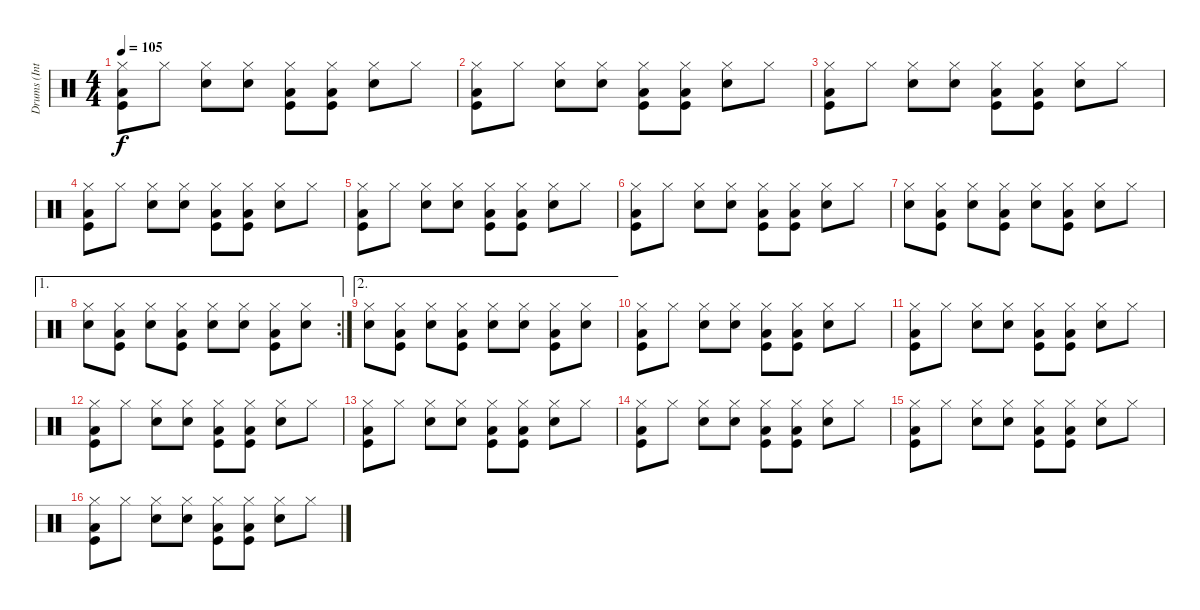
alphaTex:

\track ("Drums (Intro)" "Drums (Int") {instrument percussion}
\staff {score}
\articulation defaults
\ts (4 4)
\tempo 105
\clef neutral
\ks c
("Hi-Hat (closed)" "Low Floor Tom (hit)" "Kick (hit)").8{dy f} "Hi-Hat (closed)".8 ("Hi-Hat (closed)" "Snare (hit) 2").8 ("Hi-Hat (closed)" "Snare (hit) 2").8 ("Hi-Hat (closed)" "Low Floor Tom (hit)" "Kick (hit)").8 ("Hi-Hat (closed)" "Low Floor Tom (hit)" "Kick (hit)").8 ("Hi-Hat (closed)" "Snare (hit) 2").8 "Hi-Hat (closed)".8 |
("Hi-Hat (closed)" "Low Floor Tom (hit)" "Kick (hit)").8 "Hi-Hat (closed)".8 ("Hi-Hat (closed)" "Snare (hit) 2").8 ("Hi-Hat (closed)" "Snare (hit) 2").8 ("Hi-Hat (closed)" "Low Floor Tom (hit)" "Kick (hit)").8 ("Hi-Hat (closed)" "Low Floor Tom (hit)" "Kick (hit)").8 ("Hi-Hat (closed)" "Snare (hit) 2").8 "Hi-Hat (closed)".8 |
("Hi-Hat (closed)" "Low Floor Tom (hit)" "Kick (hit)").8 "Hi-Hat (closed)".8 ("Hi-Hat (closed)" "Snare (hit) 2").8 ("Hi-Hat (closed)" "Snare (hit) 2").8 ("Hi-Hat (closed)" "Low Floor Tom (hit)" "Kick (hit)").8 ("Hi-Hat (closed)" "Low Floor Tom (hit)" "Kick (hit)").8 ("Hi-Hat (closed)" "Snare (hit) 2").8 "Hi-Hat (closed)".8 |
("Hi-Hat (closed)" "Low Floor Tom (hit)" "Kick (hit)").8 "Hi-Hat (closed)".8 ("Hi-Hat (closed)" "Snare (hit) 2").8 ("Hi-Hat (closed)" "Snare (hit) 2").8 ("Hi-Hat (closed)" "Low Floor Tom (hit)" "Kick (hit)").8 ("Hi-Hat (closed)" "Low Floor Tom (hit)" "Kick (hit)").8 ("Hi-Hat (closed)" "Snare (hit) 2").8 "Hi-Hat (closed)".8 |
("Hi-Hat (closed)" "Low Floor Tom (hit)" "Kick (hit)").8 "Hi-Hat (closed)".8 ("Hi-Hat (closed)" "Snare (hit) 2").8 ("Hi-Hat (closed)" "Snare (hit) 2").8 ("Hi-Hat (closed)" "Low Floor Tom (hit)" "Kick (hit)").8 ("Hi-Hat (closed)" "Low Floor Tom (hit)" "Kick (hit)").8 ("Hi-Hat (closed)" "Snare (hit) 2").8 "Hi-Hat (closed)".8 |
("Hi-Hat (closed)" "Low Floor Tom (hit)" "Kick (hit)").8 "Hi-Hat (closed)".8 ("Hi-Hat (closed)" "Snare (hit) 2").8 ("Hi-Hat (closed)" "Snare (hit) 2").8 ("Hi-Hat (closed)" "Low Floor Tom (hit)" "Kick (hit)").8 ("Hi-Hat (closed)" "Low Floor Tom (hit)" "Kick (hit)").8 ("Hi-Hat (closed)" "Snare (hit) 2").8 "Hi-Hat (closed)".8 |
("Hi-Hat (closed)" "Snare (hit) 2").8 ("Hi-Hat (closed)" "Low Floor Tom (hit)" "Kick (hit)").8 ("Hi-Hat (closed)" "Snare (hit) 2").8 ("Hi-Hat (closed)" "Low Floor Tom (hit)" "Kick (hit)").8 ("Hi-Hat (closed)" "Snare (hit) 2").8 ("Hi-Hat (closed)" "Low Floor Tom (hit)" "Kick (hit)").8 ("Hi-Hat (closed)" "Snare (hit) 2").8 "Hi-Hat (closed)".8 |
\ae 1
\rc 2
("Hi-Hat (closed)" "Snare (hit) 2").8 ("Hi-Hat (closed)" "Low Floor Tom (hit)" "Kick (hit)").8 ("Hi-Hat (closed)" "Snare (hit) 2").8 ("Hi-Hat (closed)" "Low Floor Tom (hit)" "Kick (hit)").8 ("Hi-Hat (closed)" "Snare (hit) 2").8 ("Hi-Hat (closed)" "Snare (hit) 2").8 ("Hi-Hat (closed)" "Low Floor Tom (hit)" "Kick (hit)").8 ("Hi-Hat (closed)" "Snare (hit) 2").8 |
\ae 2
("Hi-Hat (closed)" "Snare (hit) 2").8 ("Hi-Hat (closed)" "Low Floor Tom (hit)" "Kick (hit)").8 ("Hi-Hat (closed)" "Snare (hit) 2").8 ("Hi-Hat (closed)" "Low Floor Tom (hit)" "Kick (hit)").8 ("Hi-Hat (closed)" "Snare (hit) 2").8 ("Hi-Hat (closed)" "Snare (hit) 2").8 ("Hi-Hat (closed)" "Low Floor Tom (hit)" "Kick (hit)").8 ("Hi-Hat (closed)" "Snare (hit) 2").8 |
("Hi-Hat (closed)" "Low Floor Tom (hit)" "Kick (hit)").8 "Hi-Hat (closed)".8 ("Hi-Hat (closed)" "Snare (hit) 2").8 ("Hi-Hat (closed)" "Snare (hit) 2").8 ("Hi-Hat (closed)" "Low Floor Tom (hit)" "Kick (hit)").8 ("Hi-Hat (closed)" "Low Floor Tom (hit)" "Kick (hit)").8 ("Hi-Hat (closed)" "Snare (hit) 2").8 "Hi-Hat (closed)".8 |
("Hi-Hat (closed)" "Low Floor Tom (hit)" "Kick (hit)").8 "Hi-Hat (closed)".8 ("Hi-Hat (closed)" "Snare (hit) 2").8 ("Hi-Hat (closed)" "Snare (hit) 2").8 ("Hi-Hat (closed)" "Low Floor Tom (hit)" "Kick (hit)").8 ("Hi-Hat (closed)" "Low Floor Tom (hit)" "Kick (hit)").8 ("Hi-Hat (closed)" "Snare (hit) 2").8 "Hi-Hat (closed)".8 |
("Hi-Hat (closed)" "Low Floor Tom (hit)" "Kick (hit)").8 "Hi-Hat (closed)".8 ("Hi-Hat (closed)" "Snare (hit) 2").8 ("Hi-Hat (closed)" "Snare (hit) 2").8 ("Hi-Hat (closed)" "Low Floor Tom (hit)" "Kick (hit)").8 ("Hi-Hat (closed)" "Low Floor Tom (hit)" "Kick (hit)").8 ("Hi-Hat (closed)" "Snare (hit) 2").8 "Hi-Hat (closed)".8 |
("Hi-Hat (closed)" "Low Floor Tom (hit)" "Kick (hit)").8 "Hi-Hat (closed)".8 ("Hi-Hat (closed)" "Snare (hit) 2").8 ("Hi-Hat (closed)" "Snare (hit) 2").8 ("Hi-Hat (closed)" "Low Floor Tom (hit)" "Kick (hit)").8 ("Hi-Hat (closed)" "Low Floor Tom (hit)" "Kick (hit)").8 ("Hi-Hat (closed)" "Snare (hit) 2").8 "Hi-Hat (closed)".8 |
("Hi-Hat (closed)" "Low Floor Tom (hit)" "Kick (hit)").8 "Hi-Hat (closed)".8 ("Hi-Hat (closed)" "Snare (hit) 2").8 ("Hi-Hat (closed)" "Snare (hit) 2").8 ("Hi-Hat (closed)" "Low Floor Tom (hit)" "Kick (hit)").8 ("Hi-Hat (closed)" "Low Floor Tom (hit)" "Kick (hit)").8 ("Hi-Hat (closed)" "Snare (hit) 2").8 "Hi-Hat (closed)".8 |
("Hi-Hat (closed)" "Low Floor Tom (hit)" "Kick (hit)").8 "Hi-Hat (closed)".8 ("Hi-Hat (closed)" "Snare (hit) 2").8 ("Hi-Hat (closed)" "Snare (hit) 2").8 ("Hi-Hat (closed)" "Low Floor Tom (hit)" "Kick (hit)").8 ("Hi-Hat (closed)" "Low Floor Tom (hit)" "Kick (hit)").8 ("Hi-Hat (closed)" "Snare (hit) 2").8 "Hi-Hat (closed)".8 |
("Hi-Hat (closed)" "Low Floor Tom (hit)" "Kick (hit)").8 "Hi-Hat (closed)".8 ("Hi-Hat (closed)" "Snare (hit) 2").8 ("Hi-Hat (closed)" "Snare (hit) 2").8 ("Hi-Hat (closed)" "Low Floor Tom (hit)" "Kick (hit)").8 ("Hi-Hat (closed)" "Low Floor Tom (hit)" "Kick (hit)").8 ("Hi-Hat (closed)" "Snare (hit) 2").8 "Hi-Hat (closed)".8
